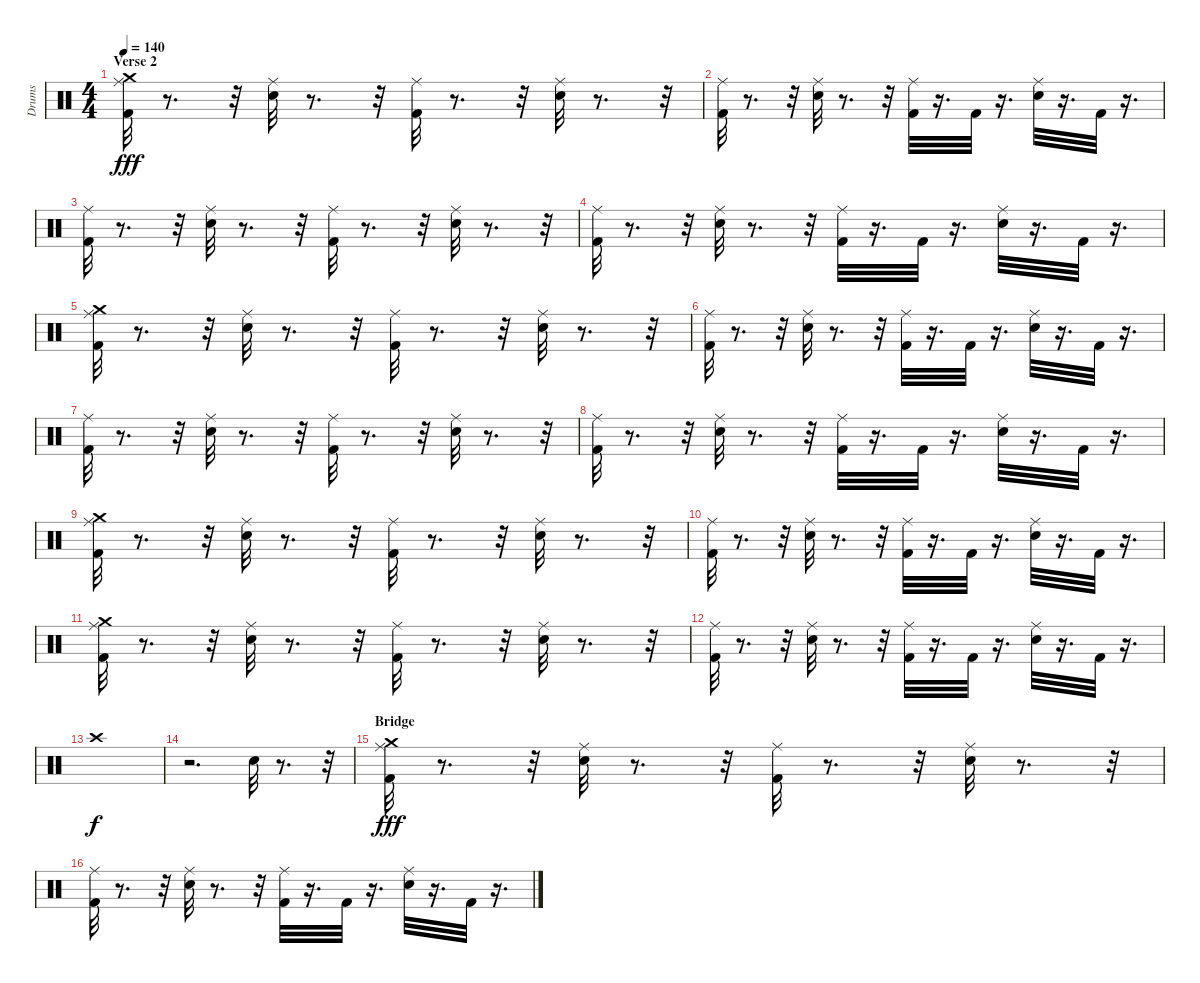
\track ("Drums" "Drums") {instrument percussion}
\staff {score}
\articulation defaults
\ts (4 4)
\section ("" "Verse 2")
\tempo 140
\clef neutral
\ks c
("Crash medium (hit)" "Kick (hit) 2" "Ride (middle)").32{dy fff} r.8{d} r.32 ("Ride (middle)" "Snare (hit) 2").32 r.8{d} r.32 ("Kick (hit) 2" "Ride (middle)").32 r.8{d} r.32 ("Ride (middle)" "Snare (hit) 2").32 r.8{d} r.32 |
("Kick (hit) 2" "Ride (middle)").32 r.8{d} r.32 ("Ride (middle)" "Snare (hit) 2").32 r.8{d} r.32 ("Kick (hit) 2" "Ride (middle)").32 r.16{d} "Kick (hit) 2".32 r.16{d} ("Ride (middle)" "Snare (hit) 2").32 r.16{d} "Kick (hit) 2".32 r.16{d} |
("Kick (hit) 2" "Ride (middle)").32 r.8{d} r.32 ("Ride (middle)" "Snare (hit) 2").32 r.8{d} r.32 ("Kick (hit) 2" "Ride (middle)").32 r.8{d} r.32 ("Ride (middle)" "Snare (hit) 2").32 r.8{d} r.32 |
("Kick (hit) 2" "Ride (middle)").32 r.8{d} r.32 ("Ride (middle)" "Snare (hit) 2").32 r.8{d} r.32 ("Kick (hit) 2" "Ride (middle)").32 r.16{d} "Kick (hit) 2".32 r.16{d} ("Ride (middle)" "Snare (hit) 2").32 r.16{d} "Kick (hit) 2".32 r.16{d} |
("Crash medium (hit)" "Kick (hit) 2" "Ride (middle)").32 r.8{d} r.32 ("Ride (middle)" "Snare (hit) 2").32 r.8{d} r.32 ("Kick (hit) 2" "Ride (middle)").32 r.8{d} r.32 ("Ride (middle)" "Snare (hit) 2").32 r.8{d} r.32 |
("Kick (hit) 2" "Ride (middle)").32 r.8{d} r.32 ("Ride (middle)" "Snare (hit) 2").32 r.8{d} r.32 ("Kick (hit) 2" "Ride (middle)").32 r.16{d} "Kick (hit) 2".32 r.16{d} ("Ride (middle)" "Snare (hit) 2").32 r.16{d} "Kick (hit) 2".32 r.16{d} |
("Kick (hit) 2" "Ride (middle)").32 r.8{d} r.32 ("Ride (middle)" "Snare (hit) 2").32 r.8{d} r.32 ("Kick (hit) 2" "Ride (middle)").32 r.8{d} r.32 ("Ride (middle)" "Snare (hit) 2").32 r.8{d} r.32 |
("Kick (hit) 2" "Ride (middle)").32 r.8{d} r.32 ("Ride (middle)" "Snare (hit) 2").32 r.8{d} r.32 ("Kick (hit) 2" "Ride (middle)").32 r.16{d} "Kick (hit) 2".32 r.16{d} ("Ride (middle)" "Snare (hit) 2").32 r.16{d} "Kick (hit) 2".32 r.16{d} |
("Crash medium (hit)" "Kick (hit) 2" "Ride (middle)").32 r.8{d} r.32 ("Ride (middle)" "Snare (hit) 2").32 r.8{d} r.32 ("Kick (hit) 2" "Ride (middle)").32 r.8{d} r.32 ("Ride (middle)" "Snare (hit) 2").32 r.8{d} r.32 |
("Kick (hit) 2" "Ride (middle)").32 r.8{d} r.32 ("Ride (middle)" "Snare (hit) 2").32 r.8{d} r.32 ("Kick (hit) 2" "Ride (middle)").32 r.16{d} "Kick (hit) 2".32 r.16{d} ("Ride (middle)" "Snare (hit) 2").32 r.16{d} "Kick (hit) 2".32 r.16{d} |
("Crash medium (hit)" "Kick (hit) 2" "Ride (middle)").32 r.8{d} r.32 ("Ride (middle)" "Snare (hit) 2").32 r.8{d} r.32 ("Kick (hit) 2" "Ride (middle)").32 r.8{d} r.32 ("Ride (middle)" "Snare (hit) 2").32 r.8{d} r.32 |
("Kick (hit) 2" "Ride (middle)").32 r.8{d} r.32 ("Ride (middle)" "Snare (hit) 2").32 r.8{d} r.32 ("Kick (hit) 2" "Ride (middle)").32 r.16{d} "Kick (hit) 2".32 r.16{d} ("Ride (middle)" "Snare (hit) 2").32 r.16{d} "Kick (hit) 2".32 r.16{d} |
"Crash high (hit)".1{dy f} |
r.2{d} "Electric Snare (hit)".32 r.8{d} r.32 |
\section ("" "Bridge ")
("Crash medium (hit)" "Kick (hit) 2" "Ride (middle)").32{dy fff} r.8{d} r.32 ("Ride (middle)" "Snare (hit) 2").32 r.8{d} r.32 ("Kick (hit) 2" "Ride (middle)").32 r.8{d} r.32 ("Ride (middle)" "Snare (hit) 2").32 r.8{d} r.32 |
("Kick (hit) 2" "Ride (middle)").32 r.8{d} r.32 ("Ride (middle)" "Snare (hit) 2").32 r.8{d} r.32 ("Kick (hit) 2" "Ride (middle)").32 r.16{d} "Kick (hit) 2".32 r.16{d} ("Ride (middle)" "Snare (hit) 2").32 r.16{d} "Kick (hit) 2".32 r.16{d}
